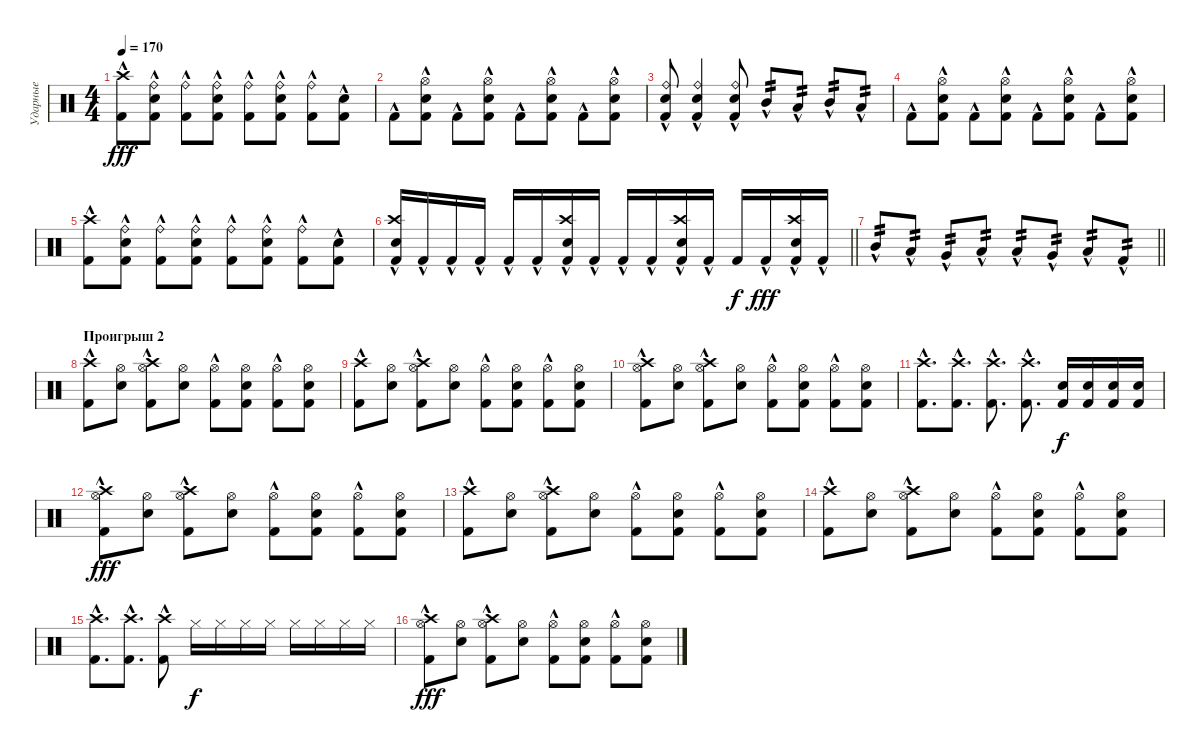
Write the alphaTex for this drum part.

\track ("Ударные" "Ударные") {instrument percussion}
\staff {score}
\articulation defaults
\ts (4 4)
\tempo 170
\clef neutral
\ks c
("Kick (hit) 2"{hac} "Crash high (hit)").8{dy fff} ("Kick (hit) 2"{hac} "Ride (bell)" "Snare (hit) 2").8 ("Kick (hit) 2"{hac} "Ride (bell)").8 ("Kick (hit) 2"{hac} "Ride (bell)" "Snare (hit) 2").8 ("Kick (hit) 2"{hac} "Ride (bell)").8 ("Kick (hit) 2"{hac} "Ride (bell)" "Snare (hit) 2").8 ("Kick (hit) 2"{hac} "Ride (bell)").8 ("Kick (hit) 2"{hac} "Snare (hit) 2").8 |
"Kick (hit) 2"{hac}.8 ("Kick (hit) 2"{hac} "Hi-Hat (open)" "Snare (hit) 2").8 "Kick (hit) 2"{hac}.8 ("Kick (hit) 2"{hac} "Hi-Hat (open)" "Snare (hit) 2").8 "Kick (hit) 2"{hac}.8 ("Kick (hit) 2"{hac} "Hi-Hat (open)" "Snare (hit) 2").8 "Kick (hit) 2"{hac}.8 ("Kick (hit) 2"{hac} "Hi-Hat (open)" "Snare (hit) 2").8 |
("Kick (hit) 2"{hac} "Ride (bell)" "Snare (hit) 2").8 ("Kick (hit) 2"{hac} "Ride (bell)" "Snare (hit) 2").4 ("Kick (hit) 2"{hac} "Ride (bell)" "Snare (hit) 2").8 "Mid Tom (hit)"{hac}.8{tp 2} "Low Tom (hit)"{hac}.8{tp 2} "Mid Tom (hit)"{hac}.8{tp 2} "Low Tom (hit)"{hac}.8{tp 2} |
"Kick (hit) 2"{hac}.8 ("Kick (hit) 2"{hac} "Hi-Hat (open)" "Snare (hit) 2").8 "Kick (hit) 2"{hac}.8 ("Kick (hit) 2"{hac} "Hi-Hat (open)" "Snare (hit) 2").8 "Kick (hit) 2"{hac}.8 ("Kick (hit) 2"{hac} "Hi-Hat (open)" "Snare (hit) 2").8 "Kick (hit) 2"{hac}.8 ("Kick (hit) 2"{hac} "Hi-Hat (open)" "Snare (hit) 2").8 |
("Kick (hit) 2"{hac} "Crash high (hit)").8 ("Kick (hit) 2"{hac} "Ride (bell)" "Snare (hit) 2").8 ("Kick (hit) 2"{hac} "Ride (bell)").8 ("Kick (hit) 2"{hac} "Ride (bell)" "Snare (hit) 2").8 ("Kick (hit) 2"{hac} "Ride (bell)").8 ("Kick (hit) 2"{hac} "Ride (bell)" "Snare (hit) 2").8 ("Kick (hit) 2"{hac} "Ride (bell)").8 ("Kick (hit) 2"{hac} "Snare (hit) 2").8 |
\barLineRight lightlight
("Kick (hit) 2"{hac} "Snare (hit) 2" "Crash high (hit)").16 "Kick (hit) 2"{hac}.16 "Kick (hit) 2"{hac}.16 "Kick (hit) 2"{hac}.16 "Kick (hit) 2"{hac}.16 "Kick (hit) 2"{hac}.16 ("Kick (hit) 2"{hac} "Snare (hit) 2" "Crash high (hit)").16 "Kick (hit) 2"{hac}.16 "Kick (hit) 2"{hac}.16 "Kick (hit) 2"{hac}.16 ("Kick (hit) 2"{hac} "Snare (hit) 2" "Crash high (hit)").16 "Kick (hit) 2"{hac}.16 "Kick (hit) 2".16{dy f} "Kick (hit) 2"{hac}.16{dy fff} ("Kick (hit) 2"{hac} "Snare (hit) 2" "Crash high (hit)").16 "Kick (hit) 2"{hac}.16 |
\barLineRight lightlight "Mid Tom (hit)"{hac}.8{tp 2} "Low Tom (hit)"{hac}.8{tp 2} "Very Low Tom (hit)"{hac}.8{tp 2} "Low Floor Tom (hit)"{hac}.8{tp 2} "Low Tom (hit)"{hac}.8{tp 2} "Very Low Tom (hit)"{hac}.8{tp 2} "Low Floor Tom (hit)"{hac}.8{tp 2} "Kick (hit) 2"{hac}.8{tp 2}
|
\section ("" "Проигрыш 2")
("Kick (hit) 2"{hac} "Crash high (hit)").8 ("Snare (hit) 2" "Hi-Hat (open)").8 ("Kick (hit) 2"{hac} "Hi-Hat (open)" "Crash high (hit)").8 ("Snare (hit) 2" "Hi-Hat (open)").8 ("Kick (hit) 2"{hac} "Hi-Hat (open)").8 ("Snare (hit) 2" "Hi-Hat (open)" "Kick (hit) 2").8 ("Kick (hit) 2"{hac} "Hi-Hat (open)").8 ("Snare (hit) 2" "Hi-Hat (open)" "Kick (hit) 2").8 |
("Kick (hit) 2"{hac} "Crash high (hit)").8 ("Snare (hit) 2" "Hi-Hat (open)").8 ("Kick (hit) 2"{hac} "Hi-Hat (open)" "Crash high (hit)").8 ("Snare (hit) 2" "Hi-Hat (open)").8 ("Kick (hit) 2"{hac} "Hi-Hat (open)").8 ("Snare (hit) 2" "Hi-Hat (open)" "Kick (hit) 2").8 ("Kick (hit) 2"{hac} "Hi-Hat (open)").8 ("Snare (hit) 2" "Hi-Hat (open)" "Kick (hit) 2").8 |
("Kick (hit) 2"{hac} "Hi-Hat (open)" "Crash high (hit)").8 ("Snare (hit) 2" "Hi-Hat (open)").8 ("Kick (hit) 2"{hac} "Hi-Hat (open)" "Crash high (hit)").8 ("Snare (hit) 2" "Hi-Hat (open)").8 ("Kick (hit) 2"{hac} "Hi-Hat (open)").8 ("Snare (hit) 2" "Hi-Hat (open)" "Kick (hit) 2").8 ("Kick (hit) 2"{hac} "Hi-Hat (open)").8 ("Snare (hit) 2" "Hi-Hat (open)" "Kick (hit) 2").8 |
("Kick (hit) 2"{hac} "Crash high (hit)").8{d} ("Kick (hit) 2"{hac} "Crash high (hit)").8{d} ("Kick (hit) 2"{hac} "Crash high (hit)").8{d} ("Kick (hit) 2"{hac} "Crash high (hit)").8{d} ("Kick (hit) 2" "Electric Snare (hit)").16{dy f} ("Kick (hit) 2" "Electric Snare (hit)").16 ("Kick (hit) 2" "Electric Snare (hit)").16 ("Kick (hit) 2" "Electric Snare (hit)").16 |
("Kick (hit) 2"{hac} "Hi-Hat (open)" "Crash high (hit)").8{dy fff} ("Snare (hit) 2" "Hi-Hat (open)").8 ("Kick (hit) 2"{hac} "Hi-Hat (open)" "Crash high (hit)").8 ("Snare (hit) 2" "Hi-Hat (open)").8 ("Kick (hit) 2"{hac} "Hi-Hat (open)").8 ("Snare (hit) 2" "Hi-Hat (open)" "Kick (hit) 2").8 ("Kick (hit) 2"{hac} "Hi-Hat (open)").8 ("Snare (hit) 2" "Hi-Hat (open)" "Kick (hit) 2").8 |
("Kick (hit) 2"{hac} "Crash high (hit)").8 ("Snare (hit) 2" "Hi-Hat (open)").8 ("Kick (hit) 2"{hac} "Hi-Hat (open)" "Crash high (hit)").8 ("Snare (hit) 2" "Hi-Hat (open)").8 ("Kick (hit) 2"{hac} "Hi-Hat (open)").8 ("Snare (hit) 2" "Hi-Hat (open)" "Kick (hit) 2").8 ("Kick (hit) 2"{hac} "Hi-Hat (open)").8 ("Snare (hit) 2" "Hi-Hat (open)" "Kick (hit) 2").8 |
("Kick (hit) 2"{hac} "Crash high (hit)").8 ("Snare (hit) 2" "Hi-Hat (open)").8 ("Kick (hit) 2"{hac} "Hi-Hat (open)" "Crash high (hit)").8 ("Snare (hit) 2" "Hi-Hat (open)").8 ("Kick (hit) 2"{hac} "Hi-Hat (open)").8 ("Snare (hit) 2" "Hi-Hat (open)" "Kick (hit) 2").8 ("Kick (hit) 2"{hac} "Hi-Hat (open)").8 ("Snare (hit) 2" "Hi-Hat (open)" "Kick (hit) 2").8 |
("Kick (hit) 2"{hac} "Crash high (hit)").8{d} ("Kick (hit) 2"{hac} "Crash high (hit)").8{d} ("Kick (hit) 2"{hac} "Crash high (hit)").8 "Hi-Hat (closed)".16{dy f} "Hi-Hat (closed)".16 "Hi-Hat (closed)".16 "Hi-Hat (closed)".16 "Hi-Hat (closed)".16 "Hi-Hat (closed)".16 "Hi-Hat (closed)".16 "Hi-Hat (closed)".16 |
("Kick (hit) 2"{hac} "Hi-Hat (open)" "Crash high (hit)").8{dy fff} ("Snare (hit) 2" "Hi-Hat (open)").8 ("Kick (hit) 2"{hac} "Hi-Hat (open)" "Crash high (hit)").8 ("Snare (hit) 2" "Hi-Hat (open)").8 ("Kick (hit) 2"{hac} "Hi-Hat (open)").8 ("Snare (hit) 2" "Hi-Hat (open)" "Kick (hit) 2").8 ("Kick (hit) 2"{hac} "Hi-Hat (open)").8 ("Snare (hit) 2" "Hi-Hat (open)" "Kick (hit) 2").8
